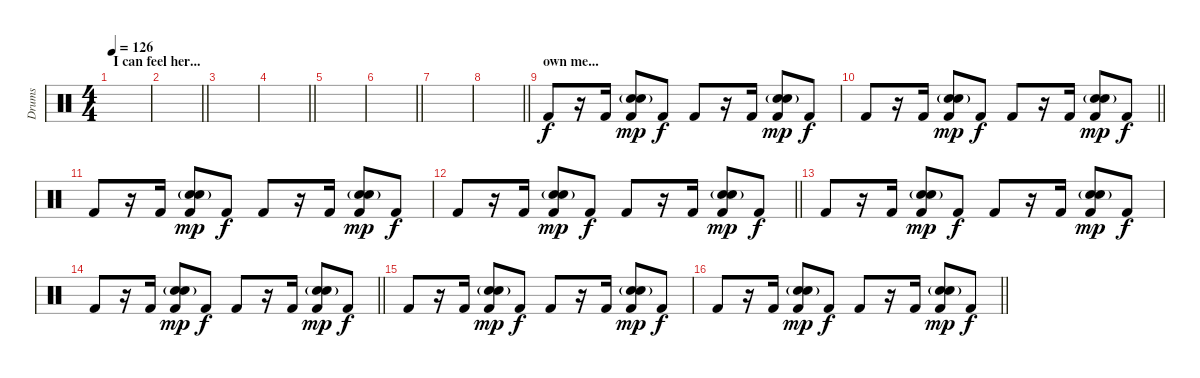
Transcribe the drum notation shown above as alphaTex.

\track ("Drums" "Drums") {instrument percussion}
\staff {score}
\articulation defaults
\ts (4 4)
\section ("" "I can feel her...")
\tempo 126
\clef neutral
\ks c
|
\barLineRight lightlight
|
|
\barLineRight lightlight
|
|
\barLineRight lightlight
|
|
\barLineRight lightlight
|
\section ("" "own me... ")
"Kick (hit) 2".8 r.16 "Kick (hit) 2".16 ("Hand Clap (hit)" "Electric Snare (hit)"{g} "Kick (hit) 2").8{dy mp} "Kick (hit) 2".8{dy f} "Kick (hit) 2".8 r.16 "Kick (hit) 2".16 ("Hand Clap (hit)" "Electric Snare (hit)"{g} "Kick (hit) 2").8{dy mp} "Kick (hit) 2".8{dy f} |
\barLineRight lightlight "Kick (hit) 2".8
r.16 "Kick (hit) 2".16 ("Hand Clap (hit)" "Electric Snare (hit)"{g} "Kick (hit) 2").8{dy mp} "Kick (hit) 2".8{dy f} "Kick (hit) 2".8 r.16 "Kick (hit) 2".16 ("Hand Clap (hit)" "Electric Snare (hit)"{g} "Kick (hit) 2").8{dy mp} "Kick (hit) 2".8{dy f} |
"Kick (hit) 2".8 r.16 "Kick (hit) 2".16 ("Hand Clap (hit)" "Electric Snare (hit)"{g} "Kick (hit) 2").8{dy mp} "Kick (hit) 2".8{dy f} "Kick (hit) 2".8 r.16 "Kick (hit) 2".16 ("Hand Clap (hit)" "Electric Snare (hit)"{g} "Kick (hit) 2").8{dy mp} "Kick (hit) 2".8{dy f} |
\barLineRight lightlight "Kick (hit) 2".8
r.16 "Kick (hit) 2".16 ("Hand Clap (hit)" "Electric Snare (hit)"{g} "Kick (hit) 2").8{dy mp} "Kick (hit) 2".8{dy f} "Kick (hit) 2".8 r.16 "Kick (hit) 2".16 ("Hand Clap (hit)" "Electric Snare (hit)"{g} "Kick (hit) 2").8{dy mp} "Kick (hit) 2".8{dy f} |
"Kick (hit) 2".8 r.16 "Kick (hit) 2".16 ("Hand Clap (hit)" "Electric Snare (hit)"{g} "Kick (hit) 2").8{dy mp} "Kick (hit) 2".8{dy f} "Kick (hit) 2".8 r.16 "Kick (hit) 2".16 ("Hand Clap (hit)" "Electric Snare (hit)"{g} "Kick (hit) 2").8{dy mp} "Kick (hit) 2".8{dy f} |
\barLineRight lightlight "Kick (hit) 2".8
r.16 "Kick (hit) 2".16 ("Hand Clap (hit)" "Electric Snare (hit)"{g} "Kick (hit) 2").8{dy mp} "Kick (hit) 2".8{dy f} "Kick (hit) 2".8 r.16 "Kick (hit) 2".16 ("Hand Clap (hit)" "Electric Snare (hit)"{g} "Kick (hit) 2").8{dy mp} "Kick (hit) 2".8{dy f} |
"Kick (hit) 2".8 r.16 "Kick (hit) 2".16 ("Hand Clap (hit)" "Electric Snare (hit)"{g} "Kick (hit) 2").8{dy mp} "Kick (hit) 2".8{dy f} "Kick (hit) 2".8 r.16 "Kick (hit) 2".16 ("Hand Clap (hit)" "Electric Snare (hit)"{g} "Kick (hit) 2").8{dy mp} "Kick (hit) 2".8{dy f} |
\barLineRight lightlight "Kick (hit) 2".8
r.16 "Kick (hit) 2".16 ("Hand Clap (hit)" "Electric Snare (hit)"{g} "Kick (hit) 2").8{dy mp} "Kick (hit) 2".8{dy f} "Kick (hit) 2".8 r.16 "Kick (hit) 2".16 ("Hand Clap (hit)" "Electric Snare (hit)"{g} "Kick (hit) 2").8{dy mp} "Kick (hit) 2".8{dy f}
